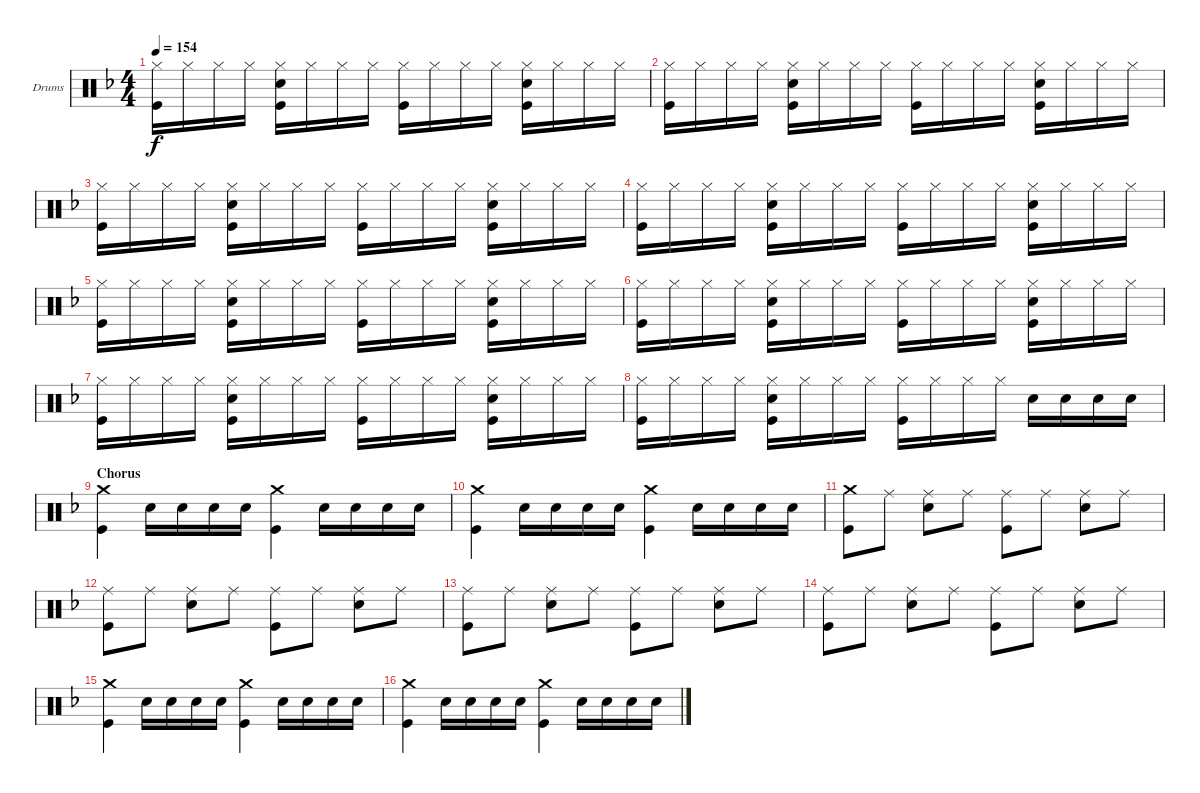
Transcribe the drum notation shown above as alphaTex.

\defaultSystemsLayout 4
\bracketExtendMode groupsimilarinstruments
\firstSystemTrackNameOrientation horizontal
\otherSystemsTrackNameOrientation horizontal
\track ("Drumkit" "Drums") {instrument percussion}
\staff {score}
\articulation defaults
\ts (4 4)
\tempo 154
\clef neutral
\ks f
("Hi-Hat (closed)" "Kick (hit)").16{dy f} "Hi-Hat (closed)".16 "Hi-Hat (closed)".16 "Hi-Hat (closed)".16 ("Hi-Hat (closed)" "Snare (hit) 2" "Kick (hit)").16 "Hi-Hat (closed)".16 "Hi-Hat (closed)".16 "Hi-Hat (closed)".16 ("Hi-Hat (closed)" "Kick (hit)").16 "Hi-Hat (closed)".16 "Hi-Hat (closed)".16 "Hi-Hat (closed)".16 ("Hi-Hat (closed)" "Kick (hit)" "Snare (hit) 2").16 "Hi-Hat (closed)".16 "Hi-Hat (closed)".16 "Hi-Hat (closed)".16 |
("Hi-Hat (closed)" "Kick (hit)").16 "Hi-Hat (closed)".16 "Hi-Hat (closed)".16 "Hi-Hat (closed)".16 ("Hi-Hat (closed)" "Snare (hit) 2" "Kick (hit)").16 "Hi-Hat (closed)".16 "Hi-Hat (closed)".16 "Hi-Hat (closed)".16 ("Hi-Hat (closed)" "Kick (hit)").16 "Hi-Hat (closed)".16 "Hi-Hat (closed)".16 "Hi-Hat (closed)".16 ("Hi-Hat (closed)" "Kick (hit)" "Snare (hit) 2").16 "Hi-Hat (closed)".16 "Hi-Hat (closed)".16 "Hi-Hat (closed)".16 |
("Hi-Hat (closed)" "Kick (hit)").16 "Hi-Hat (closed)".16 "Hi-Hat (closed)".16 "Hi-Hat (closed)".16 ("Hi-Hat (closed)" "Snare (hit) 2" "Kick (hit)").16 "Hi-Hat (closed)".16 "Hi-Hat (closed)".16 "Hi-Hat (closed)".16 ("Hi-Hat (closed)" "Kick (hit)").16 "Hi-Hat (closed)".16 "Hi-Hat (closed)".16 "Hi-Hat (closed)".16 ("Hi-Hat (closed)" "Kick (hit)" "Snare (hit) 2").16 "Hi-Hat (closed)".16 "Hi-Hat (closed)".16 "Hi-Hat (closed)".16 |
("Hi-Hat (closed)" "Kick (hit)").16 "Hi-Hat (closed)".16 "Hi-Hat (closed)".16 "Hi-Hat (closed)".16 ("Hi-Hat (closed)" "Snare (hit) 2" "Kick (hit)").16 "Hi-Hat (closed)".16 "Hi-Hat (closed)".16 "Hi-Hat (closed)".16 ("Hi-Hat (closed)" "Kick (hit)").16 "Hi-Hat (closed)".16 "Hi-Hat (closed)".16 "Hi-Hat (closed)".16 ("Hi-Hat (closed)" "Kick (hit)" "Snare (hit) 2").16 "Hi-Hat (closed)".16 "Hi-Hat (closed)".16 "Hi-Hat (closed)".16 |
("Hi-Hat (closed)" "Kick (hit)").16 "Hi-Hat (closed)".16 "Hi-Hat (closed)".16 "Hi-Hat (closed)".16 ("Hi-Hat (closed)" "Snare (hit) 2" "Kick (hit)").16 "Hi-Hat (closed)".16 "Hi-Hat (closed)".16 "Hi-Hat (closed)".16 ("Hi-Hat (closed)" "Kick (hit)").16 "Hi-Hat (closed)".16 "Hi-Hat (closed)".16 "Hi-Hat (closed)".16 ("Hi-Hat (closed)" "Kick (hit)" "Snare (hit) 2").16 "Hi-Hat (closed)".16 "Hi-Hat (closed)".16 "Hi-Hat (closed)".16 |
("Hi-Hat (closed)" "Kick (hit)").16 "Hi-Hat (closed)".16 "Hi-Hat (closed)".16 "Hi-Hat (closed)".16 ("Hi-Hat (closed)" "Snare (hit) 2" "Kick (hit)").16 "Hi-Hat (closed)".16 "Hi-Hat (closed)".16 "Hi-Hat (closed)".16 ("Hi-Hat (closed)" "Kick (hit)").16 "Hi-Hat (closed)".16 "Hi-Hat (closed)".16 "Hi-Hat (closed)".16 ("Hi-Hat (closed)" "Kick (hit)" "Snare (hit) 2").16 "Hi-Hat (closed)".16 "Hi-Hat (closed)".16 "Hi-Hat (closed)".16 |
("Hi-Hat (closed)" "Kick (hit)").16 "Hi-Hat (closed)".16 "Hi-Hat (closed)".16 "Hi-Hat (closed)".16 ("Hi-Hat (closed)" "Snare (hit) 2" "Kick (hit)").16 "Hi-Hat (closed)".16 "Hi-Hat (closed)".16 "Hi-Hat (closed)".16 ("Hi-Hat (closed)" "Kick (hit)").16 "Hi-Hat (closed)".16 "Hi-Hat (closed)".16 "Hi-Hat (closed)".16 ("Hi-Hat (closed)" "Kick (hit)" "Snare (hit) 2").16 "Hi-Hat (closed)".16 "Hi-Hat (closed)".16 "Hi-Hat (closed)".16 |
("Hi-Hat (closed)" "Kick (hit)").16 "Hi-Hat (closed)".16 "Hi-Hat (closed)".16 "Hi-Hat (closed)".16 ("Hi-Hat (closed)" "Snare (hit) 2" "Kick (hit)").16 "Hi-Hat (closed)".16 "Hi-Hat (closed)".16 "Hi-Hat (closed)".16 ("Hi-Hat (closed)" "Kick (hit)").16 "Hi-Hat (closed)".16 "Hi-Hat (closed)".16 "Hi-Hat (closed)".16 "Snare (hit) 2".16 "Snare (hit) 2".16 "Snare (hit) 2".16 "Snare (hit) 2".16 |
\section ("" "Chorus")
("Crash medium (hit)" "Kick (hit)").4 "Snare (hit) 2".16 "Snare (hit) 2".16 "Snare (hit) 2".16 "Snare (hit) 2".16 ("Crash medium (hit)" "Kick (hit)").4 "Snare (hit) 2".16 "Snare (hit) 2".16 "Snare (hit) 2".16 "Snare (hit) 2".16 |
("Crash medium (hit)" "Kick (hit)").4 "Snare (hit) 2".16 "Snare (hit) 2".16 "Snare (hit) 2".16 "Snare (hit) 2".16 ("Crash medium (hit)" "Kick (hit)").4 "Snare (hit) 2".16 "Snare (hit) 2".16 "Snare (hit) 2".16 "Snare (hit) 2".16 |
("Crash medium (hit)" "Kick (hit)").8 "Ride (middle)".8 ("Ride (middle)" "Snare (hit) 2").8 "Ride (middle)".8 ("Ride (middle)" "Kick (hit)").8 "Ride (middle)".8 ("Ride (middle)" "Snare (hit) 2").8 "Ride (middle)".8 |
("Kick (hit)" "Ride (middle)").8 "Ride (middle)".8 ("Ride (middle)" "Snare (hit) 2").8 "Ride (middle)".8 ("Ride (middle)" "Kick (hit)").8 "Ride (middle)".8 ("Ride (middle)" "Snare (hit) 2").8 "Ride (middle)".8 |
("Kick (hit)" "Ride (middle)").8 "Ride (middle)".8 ("Ride (middle)" "Snare (hit) 2").8 "Ride (middle)".8 ("Ride (middle)" "Kick (hit)").8 "Ride (middle)".8 ("Ride (middle)" "Snare (hit) 2").8 "Ride (middle)".8 |
("Kick (hit)" "Ride (middle)").8 "Ride (middle)".8 ("Ride (middle)" "Snare (hit) 2").8 "Ride (middle)".8 ("Ride (middle)" "Kick (hit)").8 "Ride (middle)".8 ("Ride (middle)" "Snare (hit) 2").8 "Ride (middle)".8 |
("Crash medium (hit)" "Kick (hit)").4 "Snare (hit) 2".16 "Snare (hit) 2".16 "Snare (hit) 2".16 "Snare (hit) 2".16 ("Crash medium (hit)" "Kick (hit)").4 "Snare (hit) 2".16 "Snare (hit) 2".16 "Snare (hit) 2".16 "Snare (hit) 2".16 |
("Crash medium (hit)" "Kick (hit)").4 "Snare (hit) 2".16 "Snare (hit) 2".16 "Snare (hit) 2".16 "Snare (hit) 2".16 ("Crash medium (hit)" "Kick (hit)").4 "Snare (hit) 2".16 "Snare (hit) 2".16 "Snare (hit) 2".16 "Snare (hit) 2".16
